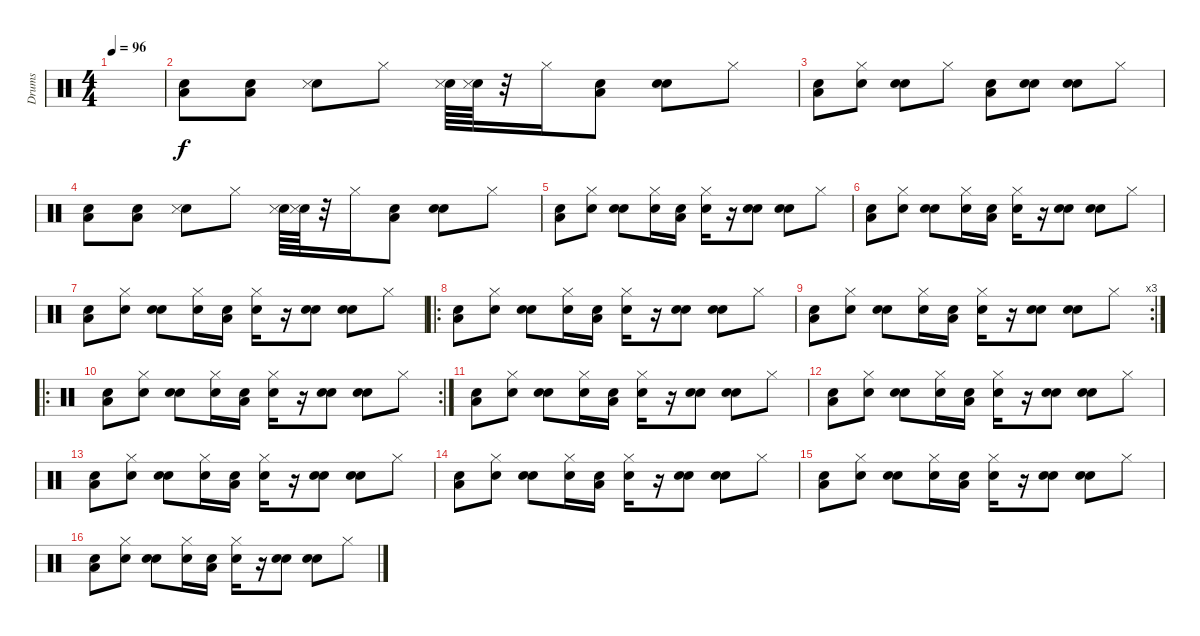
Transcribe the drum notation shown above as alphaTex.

\track ("Drums" "Drums") {instrument percussion}
\staff {score}
\articulation defaults
\ts (4 4)
\tempo 96
\clef neutral
\ks c
|
("Electric Snare (hit)" "Low Floor Tom (hit)").8 ("Electric Snare (hit)" "Low Floor Tom (hit)").8 ("Snare (hit) 2" "Snare (side stick) 3").8 "Hi-Hat (closed)".8 ("Electric Snare (hit)" "Snare (side stick) 3").64 ("Electric Snare (hit)" "Snare (side stick) 3").64 r.32 "Hi-Hat (closed)".16 ("Electric Snare (hit)" "Low Floor Tom (hit)").8 ("Snare (hit) 2" "Electric Snare (hit)").8 "Hi-Hat (closed)".8 |
("Electric Snare (hit)" "Low Floor Tom (hit)").8 ("Electric Snare (hit)" "Hi-Hat (closed)").8 ("Snare (hit) 2" "Electric Snare (hit)").8 "Hi-Hat (closed)".8 ("Electric Snare (hit)" "Low Floor Tom (hit)").8 ("Electric Snare (hit)" "Electric Snare (hit)").8 ("Snare (hit) 2" "Electric Snare (hit)").8 "Hi-Hat (closed)".8 |
("Electric Snare (hit)" "Low Floor Tom (hit)").8 ("Electric Snare (hit)" "Low Floor Tom (hit)").8 ("Snare (hit) 2" "Snare (side stick) 3").8 "Hi-Hat (closed)".8 ("Electric Snare (hit)" "Snare (side stick) 3").64 ("Electric Snare (hit)" "Snare (side stick) 3").64 r.32 "Hi-Hat (closed)".16 ("Electric Snare (hit)" "Low Floor Tom (hit)").8 ("Snare (hit) 2" "Electric Snare (hit)").8 "Hi-Hat (closed)".8 |
("Electric Snare (hit)" "Low Floor Tom (hit)").8 ("Electric Snare (hit)" "Hi-Hat (closed)").8 ("Snare (hit) 2" "Electric Snare (hit)").8 ("Electric Snare (hit)" "Hi-Hat (closed)").16 ("Electric Snare (hit)" "Low Floor Tom (hit)").16 ("Electric Snare (hit)" "Hi-Hat (closed)").16 r.16 ("Electric Snare (hit)" "Electric Snare (hit)").8 ("Snare (hit) 2" "Electric Snare (hit)").8 "Hi-Hat (closed)".8 |
("Electric Snare (hit)" "Low Floor Tom (hit)").8 ("Electric Snare (hit)" "Hi-Hat (closed)").8 ("Snare (hit) 2" "Electric Snare (hit)").8 ("Electric Snare (hit)" "Hi-Hat (closed)").16 ("Electric Snare (hit)" "Low Floor Tom (hit)").16 ("Electric Snare (hit)" "Hi-Hat (closed)").16 r.16 ("Electric Snare (hit)" "Electric Snare (hit)").8 ("Snare (hit) 2" "Electric Snare (hit)").8 "Hi-Hat (closed)".8 |
("Electric Snare (hit)" "Low Floor Tom (hit)").8 ("Electric Snare (hit)" "Hi-Hat (closed)").8 ("Snare (hit) 2" "Electric Snare (hit)").8 ("Electric Snare (hit)" "Hi-Hat (closed)").16 ("Electric Snare (hit)" "Low Floor Tom (hit)").16 ("Electric Snare (hit)" "Hi-Hat (closed)").16 r.16 ("Electric Snare (hit)" "Electric Snare (hit)").8 ("Snare (hit) 2" "Electric Snare (hit)").8 "Hi-Hat (closed)".8 |
\ro
("Electric Snare (hit)" "Low Floor Tom (hit)").8 ("Electric Snare (hit)" "Hi-Hat (closed)").8 ("Snare (hit) 2" "Electric Snare (hit)").8 ("Electric Snare (hit)" "Hi-Hat (closed)").16 ("Electric Snare (hit)" "Low Floor Tom (hit)").16 ("Electric Snare (hit)" "Hi-Hat (closed)").16 r.16 ("Electric Snare (hit)" "Electric Snare (hit)").8 ("Snare (hit) 2" "Electric Snare (hit)").8 "Hi-Hat (closed)".8 |
\rc 3
("Electric Snare (hit)" "Low Floor Tom (hit)").8 ("Electric Snare (hit)" "Hi-Hat (closed)").8 ("Snare (hit) 2" "Electric Snare (hit)").8 ("Electric Snare (hit)" "Hi-Hat (closed)").16 ("Electric Snare (hit)" "Low Floor Tom (hit)").16 ("Electric Snare (hit)" "Hi-Hat (closed)").16 r.16 ("Electric Snare (hit)" "Electric Snare (hit)").8 ("Snare (hit) 2" "Electric Snare (hit)").8 "Hi-Hat (closed)".8 |
\ro
\rc 2
("Electric Snare (hit)" "Low Floor Tom (hit)").8 ("Electric Snare (hit)" "Hi-Hat (closed)").8 ("Snare (hit) 2" "Electric Snare (hit)").8 ("Electric Snare (hit)" "Hi-Hat (closed)").16 ("Electric Snare (hit)" "Low Floor Tom (hit)").16 ("Electric Snare (hit)" "Hi-Hat (closed)").16 r.16 ("Electric Snare (hit)" "Electric Snare (hit)").8 ("Snare (hit) 2" "Electric Snare (hit)").8 "Hi-Hat (closed)".8 |
("Electric Snare (hit)" "Low Floor Tom (hit)").8 ("Electric Snare (hit)" "Hi-Hat (closed)").8 ("Snare (hit) 2" "Electric Snare (hit)").8 ("Electric Snare (hit)" "Hi-Hat (closed)").16 ("Electric Snare (hit)" "Low Floor Tom (hit)").16 ("Electric Snare (hit)" "Hi-Hat (closed)").16 r.16 ("Electric Snare (hit)" "Electric Snare (hit)").8 ("Snare (hit) 2" "Electric Snare (hit)").8 "Hi-Hat (closed)".8 |
("Electric Snare (hit)" "Low Floor Tom (hit)").8 ("Electric Snare (hit)" "Hi-Hat (closed)").8 ("Snare (hit) 2" "Electric Snare (hit)").8 ("Electric Snare (hit)" "Hi-Hat (closed)").16 ("Electric Snare (hit)" "Low Floor Tom (hit)").16 ("Electric Snare (hit)" "Hi-Hat (closed)").16 r.16 ("Electric Snare (hit)" "Electric Snare (hit)").8 ("Snare (hit) 2" "Electric Snare (hit)").8 "Hi-Hat (closed)".8 |
("Electric Snare (hit)" "Low Floor Tom (hit)").8 ("Electric Snare (hit)" "Hi-Hat (closed)").8 ("Snare (hit) 2" "Electric Snare (hit)").8 ("Electric Snare (hit)" "Hi-Hat (closed)").16 ("Electric Snare (hit)" "Low Floor Tom (hit)").16 ("Electric Snare (hit)" "Hi-Hat (closed)").16 r.16 ("Electric Snare (hit)" "Electric Snare (hit)").8 ("Snare (hit) 2" "Electric Snare (hit)").8 "Hi-Hat (closed)".8 |
("Electric Snare (hit)" "Low Floor Tom (hit)").8 ("Electric Snare (hit)" "Hi-Hat (closed)").8 ("Snare (hit) 2" "Electric Snare (hit)").8 ("Electric Snare (hit)" "Hi-Hat (closed)").16 ("Electric Snare (hit)" "Low Floor Tom (hit)").16 ("Electric Snare (hit)" "Hi-Hat (closed)").16 r.16 ("Electric Snare (hit)" "Electric Snare (hit)").8 ("Snare (hit) 2" "Electric Snare (hit)").8 "Hi-Hat (closed)".8 |
("Electric Snare (hit)" "Low Floor Tom (hit)").8 ("Electric Snare (hit)" "Hi-Hat (closed)").8 ("Snare (hit) 2" "Electric Snare (hit)").8 ("Electric Snare (hit)" "Hi-Hat (closed)").16 ("Electric Snare (hit)" "Low Floor Tom (hit)").16 ("Electric Snare (hit)" "Hi-Hat (closed)").16 r.16 ("Electric Snare (hit)" "Electric Snare (hit)").8 ("Snare (hit) 2" "Electric Snare (hit)").8 "Hi-Hat (closed)".8 |
("Electric Snare (hit)" "Low Floor Tom (hit)").8 ("Electric Snare (hit)" "Hi-Hat (closed)").8 ("Snare (hit) 2" "Electric Snare (hit)").8 ("Electric Snare (hit)" "Hi-Hat (closed)").16 ("Electric Snare (hit)" "Low Floor Tom (hit)").16 ("Electric Snare (hit)" "Hi-Hat (closed)").16 r.16 ("Electric Snare (hit)" "Electric Snare (hit)").8 ("Snare (hit) 2" "Electric Snare (hit)").8 "Hi-Hat (closed)".8
